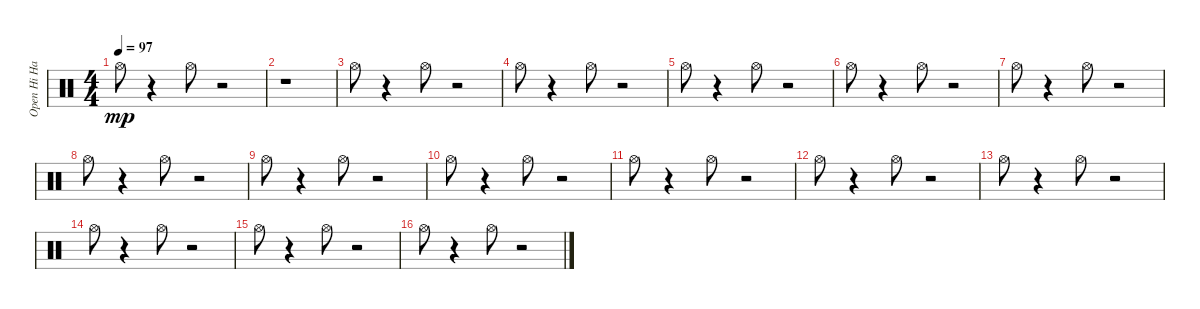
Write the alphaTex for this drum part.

\track ("Open Hi Hat" "Open Hi Ha") {instrument percussion}
\staff {score}
\articulation defaults
\ts (4 4)
\tempo 97
\clef neutral
\ks c "Hi-Hat (open)".8{dy mp}
r.4 "Hi-Hat (open)".8 r.2 |
r.1 |
"Hi-Hat (open)".8 r.4 "Hi-Hat (open)".8 r.2 |
"Hi-Hat (open)".8 r.4 "Hi-Hat (open)".8 r.2 |
"Hi-Hat (open)".8 r.4 "Hi-Hat (open)".8 r.2 |
"Hi-Hat (open)".8 r.4 "Hi-Hat (open)".8 r.2 |
"Hi-Hat (open)".8 r.4 "Hi-Hat (open)".8 r.2 |
"Hi-Hat (open)".8 r.4 "Hi-Hat (open)".8 r.2 |
"Hi-Hat (open)".8 r.4 "Hi-Hat (open)".8 r.2 |
"Hi-Hat (open)".8 r.4 "Hi-Hat (open)".8 r.2 |
"Hi-Hat (open)".8 r.4 "Hi-Hat (open)".8 r.2 |
"Hi-Hat (open)".8 r.4 "Hi-Hat (open)".8 r.2 |
"Hi-Hat (open)".8 r.4 "Hi-Hat (open)".8 r.2 |
"Hi-Hat (open)".8 r.4 "Hi-Hat (open)".8 r.2 |
"Hi-Hat (open)".8 r.4 "Hi-Hat (open)".8 r.2 |
"Hi-Hat (open)".8 r.4 "Hi-Hat (open)".8 r.2
